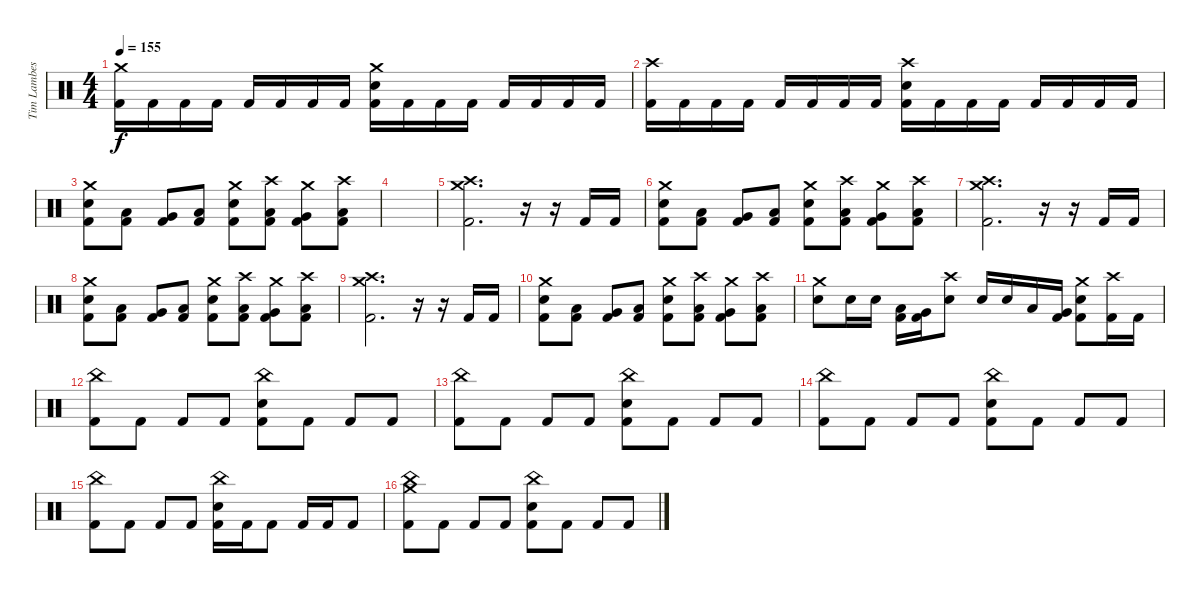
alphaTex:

\track ("Tim Lambesis" "Tim Lambes") {instrument percussion}
\staff {score}
\articulation defaults
\ts (4 4)
\tempo 155
\clef neutral
\ks c
("Crash medium (hit)" "Kick (hit) 2").16{dy f} "Kick (hit) 2".16 "Kick (hit) 2".16 "Kick (hit) 2".16 "Kick (hit) 2".16 "Kick (hit) 2".16 "Kick (hit) 2".16 "Kick (hit) 2".16 ("Crash medium (hit)" "Electric Snare (hit)" "Kick (hit) 2").16 "Kick (hit) 2".16 "Kick (hit) 2".16 "Kick (hit) 2".16 "Kick (hit) 2".16 "Kick (hit) 2".16 "Kick (hit) 2".16 "Kick (hit) 2".16 |
("Crash high (hit)" "Kick (hit) 2").16 "Kick (hit) 2".16 "Kick (hit) 2".16 "Kick (hit) 2".16 "Kick (hit) 2".16 "Kick (hit) 2".16 "Kick (hit) 2".16 "Kick (hit) 2".16 ("Crash high (hit)" "Electric Snare (hit)" "Kick (hit) 2").16 "Kick (hit) 2".16 "Kick (hit) 2".16 "Kick (hit) 2".16 "Kick (hit) 2".16 "Kick (hit) 2".16 "Kick (hit) 2".16 "Kick (hit) 2".16 |
("Crash medium (hit)" "Electric Snare (hit)" "Kick (hit) 2").8 ("Low Tom (hit)" "Kick (hit) 2").8 ("Very Low Tom (hit)" "Kick (hit) 2").8 ("Low Floor Tom (hit)" "Kick (hit) 2").8 ("Crash medium (hit)" "Electric Snare (hit)" "Kick (hit) 2").8 ("Crash high (hit)" "Low Tom (hit)" "Kick (hit) 2").8 ("Crash medium (hit)" "Very Low Tom (hit)" "Kick (hit) 2").8 ("Crash high (hit)" "Low Floor Tom (hit)" "Kick (hit) 2").8 |
|
("Crash medium (hit)" "Crash high (hit)" "Kick (hit) 2").2{d} r.16 r.16 "Kick (hit) 2".16 "Kick (hit) 2".16 |
("Crash medium (hit)" "Electric Snare (hit)" "Kick (hit) 2").8 ("Low Tom (hit)" "Kick (hit) 2").8 ("Very Low Tom (hit)" "Kick (hit) 2").8 ("Low Floor Tom (hit)" "Kick (hit) 2").8 ("Crash medium (hit)" "Electric Snare (hit)" "Kick (hit) 2").8 ("Crash high (hit)" "Low Tom (hit)" "Kick (hit) 2").8 ("Crash medium (hit)" "Very Low Tom (hit)" "Kick (hit) 2").8 ("Crash high (hit)" "Low Floor Tom (hit)" "Kick (hit) 2").8 |
("Crash medium (hit)" "Crash high (hit)" "Kick (hit) 2").2{d} r.16 r.16 "Kick (hit) 2".16 "Kick (hit) 2".16 |
("Crash medium (hit)" "Electric Snare (hit)" "Kick (hit) 2").8 ("Low Tom (hit)" "Kick (hit) 2").8 ("Very Low Tom (hit)" "Kick (hit) 2").8 ("Low Floor Tom (hit)" "Kick (hit) 2").8 ("Crash medium (hit)" "Electric Snare (hit)" "Kick (hit) 2").8 ("Crash high (hit)" "Low Tom (hit)" "Kick (hit) 2").8 ("Crash medium (hit)" "Very Low Tom (hit)" "Kick (hit) 2").8 ("Crash high (hit)" "Low Floor Tom (hit)" "Kick (hit) 2").8 |
("Crash medium (hit)" "Crash high (hit)" "Kick (hit) 2").2{d} r.16 r.16 "Kick (hit) 2".16 "Kick (hit) 2".16 |
("Crash medium (hit)" "Electric Snare (hit)" "Kick (hit) 2").8 ("Low Tom (hit)" "Kick (hit) 2").8 ("Very Low Tom (hit)" "Kick (hit) 2").8 ("Low Floor Tom (hit)" "Kick (hit) 2").8 ("Crash medium (hit)" "Electric Snare (hit)" "Kick (hit) 2").8 ("Crash high (hit)" "Low Tom (hit)" "Kick (hit) 2").8 ("Crash medium (hit)" "Very Low Tom (hit)" "Kick (hit) 2").8 ("Crash high (hit)" "Low Floor Tom (hit)" "Kick (hit) 2").8 |
("Crash medium (hit)" "Electric Snare (hit)").8 "Electric Snare (hit)".16 "Electric Snare (hit)".16 ("Low Tom (hit)" "Kick (hit) 2").16 ("Very Low Tom (hit)" "Kick (hit) 2").16 ("Crash high (hit)" "Electric Snare (hit)").8 "Electric Snare (hit)".16 "Electric Snare (hit)".16 "Low Tom (hit)".16 ("Very Low Tom (hit)" "Kick (hit) 2").16 ("Crash medium (hit)" "Electric Snare (hit)" "Kick (hit) 2").8 ("Crash high (hit)" "Kick (hit) 2").16 "Kick (hit) 2".16 |
("China (hit)" "Kick (hit) 2").8 "Kick (hit) 2".8 "Kick (hit) 2".8 "Kick (hit) 2".8 ("China (hit)" "Electric Snare (hit)" "Kick (hit) 2").8 "Kick (hit) 2".8 "Kick (hit) 2".8 "Kick (hit) 2".8 |
("China (hit)" "Kick (hit) 2").8 "Kick (hit) 2".8 "Kick (hit) 2".8 "Kick (hit) 2".8 ("China (hit)" "Electric Snare (hit)" "Kick (hit) 2").8 "Kick (hit) 2".8 "Kick (hit) 2".8 "Kick (hit) 2".8 |
("China (hit)" "Kick (hit) 2").8 "Kick (hit) 2".8 "Kick (hit) 2".8 "Kick (hit) 2".8 ("China (hit)" "Electric Snare (hit)" "Kick (hit) 2").8 "Kick (hit) 2".8 "Kick (hit) 2".8 "Kick (hit) 2".8 |
("China (hit)" "Kick (hit) 2").8 "Kick (hit) 2".8 "Kick (hit) 2".8 "Kick (hit) 2".8 ("China (hit)" "Electric Snare (hit)" "Kick (hit) 2").16 "Kick (hit) 2".16 "Kick (hit) 2".8 "Kick (hit) 2".16 "Kick (hit) 2".16 "Kick (hit) 2".8 |
("Crash medium (hit)" "China (hit)" "Kick (hit) 2").8 "Kick (hit) 2".8 "Kick (hit) 2".8 "Kick (hit) 2".8 ("China (hit)" "Electric Snare (hit)" "Kick (hit) 2").8 "Kick (hit) 2".8 "Kick (hit) 2".8 "Kick (hit) 2".8
